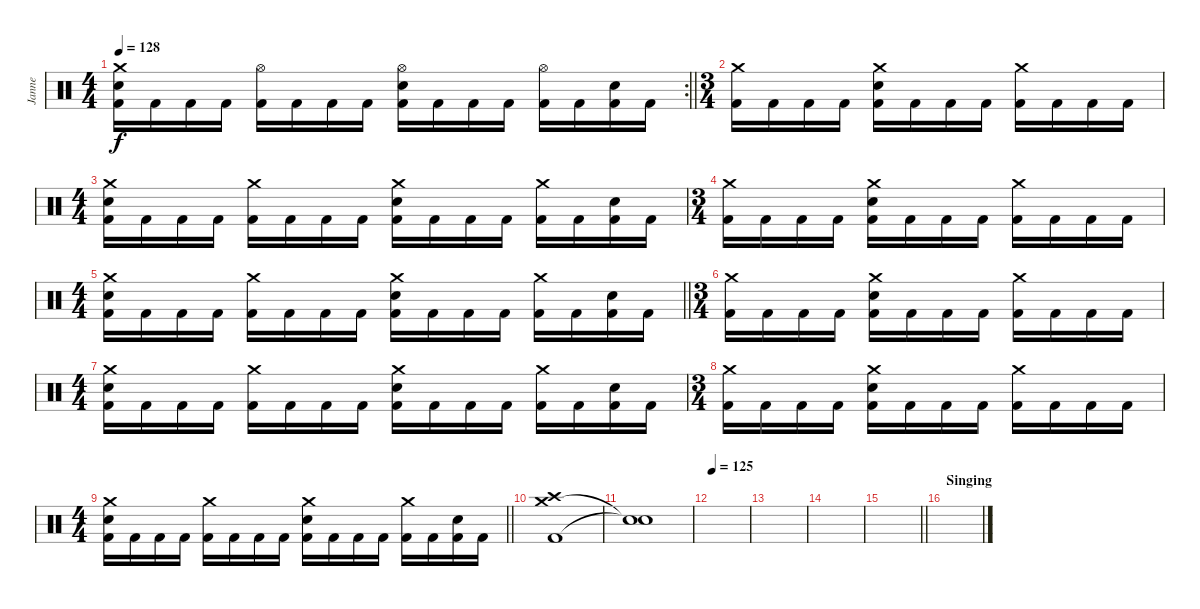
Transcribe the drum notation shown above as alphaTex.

\track ("Janne" "Janne") {instrument percussion}
\staff {score}
\articulation defaults
\rc 2
\ts (4 4)
\tempo 128
\clef neutral
\barLineRight lightlight
\ks c
("Kick (hit) 2" "Snare (hit) 2" "Crash medium (hit)").16{dy f} "Kick (hit) 2".16 "Kick (hit) 2".16 "Kick (hit) 2".16 ("Kick (hit) 2" "Hi-Hat (open)").16 "Kick (hit) 2".16 "Kick (hit) 2".16 "Kick (hit) 2".16 ("Kick (hit) 2" "Snare (hit) 2" "Hi-Hat (open)").16 "Kick (hit) 2".16 "Kick (hit) 2".16 "Kick (hit) 2".16 ("Kick (hit) 2" "Hi-Hat (open)").16 "Kick (hit) 2".16 ("Kick (hit) 2" "Snare (hit) 2").16 "Kick (hit) 2".16 |
\ts (3 4)
\section ("" "")
("Kick (hit) 2" "Crash medium (hit)").16 "Kick (hit) 2".16 "Kick (hit) 2".16 "Kick (hit) 2".16 ("Kick (hit) 2" "Snare (hit) 2" "Crash medium (hit)").16 "Kick (hit) 2".16 "Kick (hit) 2".16 "Kick (hit) 2".16 ("Kick (hit) 2" "Crash medium (hit)").16 "Kick (hit) 2".16 "Kick (hit) 2".16 "Kick (hit) 2".16 |
\ts (4 4)
("Kick (hit) 2" "Snare (hit) 2" "Crash medium (hit)").16 "Kick (hit) 2".16 "Kick (hit) 2".16 "Kick (hit) 2".16 ("Kick (hit) 2" "Crash medium (hit)").16 "Kick (hit) 2".16 "Kick (hit) 2".16 "Kick (hit) 2".16 ("Kick (hit) 2" "Snare (hit) 2" "Crash medium (hit)").16 "Kick (hit) 2".16 "Kick (hit) 2".16 "Kick (hit) 2".16 ("Kick (hit) 2" "Crash medium (hit)").16 "Kick (hit) 2".16 ("Kick (hit) 2" "Snare (hit) 2").16 "Kick (hit) 2".16 |
\ts (3 4)
("Kick (hit) 2" "Crash medium (hit)").16 "Kick (hit) 2".16 "Kick (hit) 2".16 "Kick (hit) 2".16 ("Kick (hit) 2" "Snare (hit) 2" "Crash medium (hit)").16 "Kick (hit) 2".16 "Kick (hit) 2".16 "Kick (hit) 2".16 ("Kick (hit) 2" "Crash medium (hit)").16 "Kick (hit) 2".16 "Kick (hit) 2".16 "Kick (hit) 2".16 |
\ts (4 4)
\barLineRight lightlight
("Kick (hit) 2" "Snare (hit) 2" "Crash medium (hit)").16 "Kick (hit) 2".16 "Kick (hit) 2".16 "Kick (hit) 2".16 ("Kick (hit) 2" "Crash medium (hit)").16 "Kick (hit) 2".16 "Kick (hit) 2".16 "Kick (hit) 2".16 ("Kick (hit) 2" "Snare (hit) 2" "Crash medium (hit)").16 "Kick (hit) 2".16 "Kick (hit) 2".16 "Kick (hit) 2".16 ("Kick (hit) 2" "Crash medium (hit)").16 "Kick (hit) 2".16 ("Kick (hit) 2" "Snare (hit) 2").16 "Kick (hit) 2".16 |
\ts (3 4)
\section ("" "")
("Kick (hit) 2" "Crash medium (hit)").16 "Kick (hit) 2".16 "Kick (hit) 2".16 "Kick (hit) 2".16 ("Kick (hit) 2" "Snare (hit) 2" "Crash medium (hit)").16 "Kick (hit) 2".16 "Kick (hit) 2".16 "Kick (hit) 2".16 ("Kick (hit) 2" "Crash medium (hit)").16 "Kick (hit) 2".16 "Kick (hit) 2".16 "Kick (hit) 2".16 |
\ts (4 4)
("Kick (hit) 2" "Snare (hit) 2" "Crash medium (hit)").16 "Kick (hit) 2".16 "Kick (hit) 2".16 "Kick (hit) 2".16 ("Kick (hit) 2" "Crash medium (hit)").16 "Kick (hit) 2".16 "Kick (hit) 2".16 "Kick (hit) 2".16 ("Kick (hit) 2" "Snare (hit) 2" "Crash medium (hit)").16 "Kick (hit) 2".16 "Kick (hit) 2".16 "Kick (hit) 2".16 ("Kick (hit) 2" "Crash medium (hit)").16 "Kick (hit) 2".16 ("Kick (hit) 2" "Snare (hit) 2").16 "Kick (hit) 2".16 |
\ts (3 4)
("Kick (hit) 2" "Crash medium (hit)").16 "Kick (hit) 2".16 "Kick (hit) 2".16 "Kick (hit) 2".16 ("Kick (hit) 2" "Snare (hit) 2" "Crash medium (hit)").16 "Kick (hit) 2".16 "Kick (hit) 2".16 "Kick (hit) 2".16 ("Kick (hit) 2" "Crash medium (hit)").16 "Kick (hit) 2".16 "Kick (hit) 2".16 "Kick (hit) 2".16 |
\ts (4 4)
\barLineRight lightlight
("Kick (hit) 2" "Snare (hit) 2" "Crash medium (hit)").16 "Kick (hit) 2".16 "Kick (hit) 2".16 "Kick (hit) 2".16 ("Kick (hit) 2" "Crash medium (hit)").16 "Kick (hit) 2".16 "Kick (hit) 2".16 "Kick (hit) 2".16 ("Kick (hit) 2" "Snare (hit) 2" "Crash medium (hit)").16 "Kick (hit) 2".16 "Kick (hit) 2".16 "Kick (hit) 2".16 ("Kick (hit) 2" "Crash medium (hit)").16 "Kick (hit) 2".16 ("Kick (hit) 2" "Snare (hit) 2").16 "Kick (hit) 2".16 |
\section ("" "")
("Kick (hit) 2" "Crash medium (hit)" "Crash high (hit)").1 |
("Snare (hit)"{t} "Snare (hit)"{t}).1 |
\tempo 125
|
|
|
\barLineRight lightlight
|
\section ("" "Singing")
